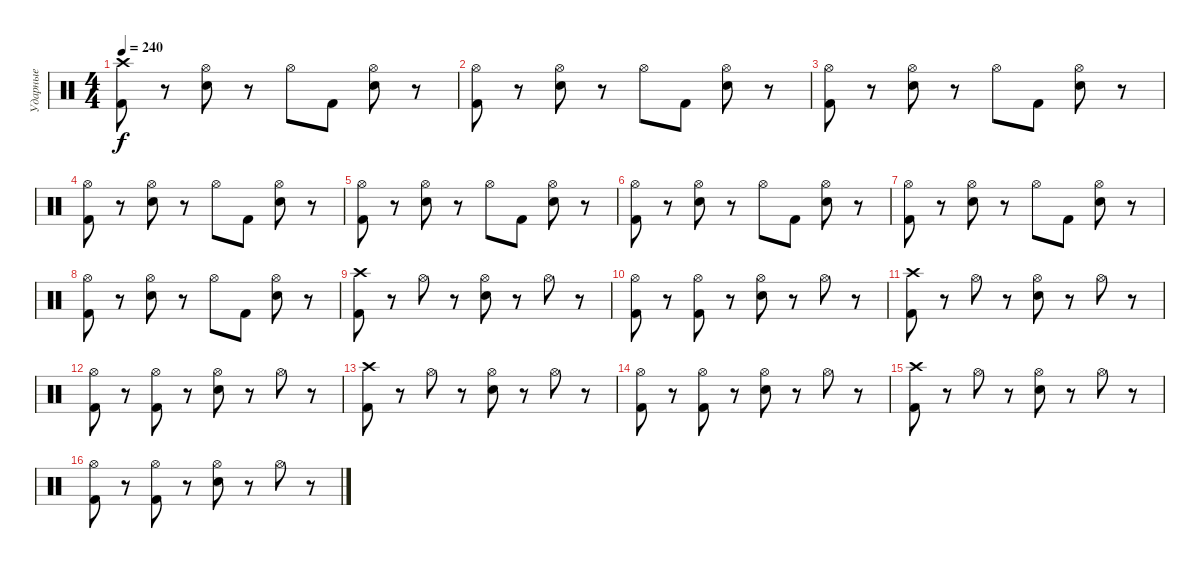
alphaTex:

\track ("Ударные" "Ударные") {instrument percussion}
\staff {score}
\articulation defaults
\ts (4 4)
\tempo 240
\clef neutral
\ks c
("Crash high (hit)" "Kick (hit) 2").8{dy f} r.8 ("Hi-Hat (open)" "Electric Snare (hit)").8 r.8 "Hi-Hat (open)".8 "Kick (hit) 2".8 ("Hi-Hat (open)" "Electric Snare (hit)").8 r.8 |
("Hi-Hat (open)" "Kick (hit) 2").8 r.8 ("Hi-Hat (open)" "Electric Snare (hit)").8 r.8 "Hi-Hat (open)".8 "Kick (hit) 2".8 ("Hi-Hat (open)" "Electric Snare (hit)").8 r.8 |
("Hi-Hat (open)" "Kick (hit) 2").8 r.8 ("Hi-Hat (open)" "Electric Snare (hit)").8 r.8 "Hi-Hat (open)".8 "Kick (hit) 2".8 ("Hi-Hat (open)" "Electric Snare (hit)").8 r.8 |
("Hi-Hat (open)" "Kick (hit) 2").8 r.8 ("Hi-Hat (open)" "Electric Snare (hit)").8 r.8 "Hi-Hat (open)".8 "Kick (hit) 2".8 ("Hi-Hat (open)" "Electric Snare (hit)").8 r.8 |
("Hi-Hat (open)" "Kick (hit) 2").8 r.8 ("Hi-Hat (open)" "Electric Snare (hit)").8 r.8 "Hi-Hat (open)".8 "Kick (hit) 2".8 ("Hi-Hat (open)" "Electric Snare (hit)").8 r.8 |
("Hi-Hat (open)" "Kick (hit) 2").8 r.8 ("Hi-Hat (open)" "Electric Snare (hit)").8 r.8 "Hi-Hat (open)".8 "Kick (hit) 2".8 ("Hi-Hat (open)" "Electric Snare (hit)").8 r.8 |
("Hi-Hat (open)" "Kick (hit) 2").8 r.8 ("Hi-Hat (open)" "Electric Snare (hit)").8 r.8 "Hi-Hat (open)".8 "Kick (hit) 2".8 ("Hi-Hat (open)" "Electric Snare (hit)").8 r.8 |
("Hi-Hat (open)" "Kick (hit) 2").8 r.8 ("Hi-Hat (open)" "Electric Snare (hit)").8 r.8 "Hi-Hat (open)".8 "Kick (hit) 2".8 ("Hi-Hat (open)" "Electric Snare (hit)").8 r.8 |
("Crash high (hit)" "Kick (hit) 2").8 r.8 "Hi-Hat (open)".8 r.8 ("Hi-Hat (open)" "Electric Snare (hit)").8 r.8 "Hi-Hat (open)".8 r.8 |
("Hi-Hat (open)" "Kick (hit) 2").8 r.8 ("Hi-Hat (open)" "Kick (hit) 2").8 r.8 ("Hi-Hat (open)" "Electric Snare (hit)").8 r.8 "Hi-Hat (open)".8 r.8 |
("Crash high (hit)" "Kick (hit) 2").8 r.8 "Hi-Hat (open)".8 r.8 ("Hi-Hat (open)" "Electric Snare (hit)").8 r.8 "Hi-Hat (open)".8 r.8 |
("Hi-Hat (open)" "Kick (hit) 2").8 r.8 ("Hi-Hat (open)" "Kick (hit) 2").8 r.8 ("Hi-Hat (open)" "Electric Snare (hit)").8 r.8 "Hi-Hat (open)".8 r.8 |
("Crash high (hit)" "Kick (hit) 2").8 r.8 "Hi-Hat (open)".8 r.8 ("Hi-Hat (open)" "Electric Snare (hit)").8 r.8 "Hi-Hat (open)".8 r.8 |
("Hi-Hat (open)" "Kick (hit) 2").8 r.8 ("Hi-Hat (open)" "Kick (hit) 2").8 r.8 ("Hi-Hat (open)" "Electric Snare (hit)").8 r.8 "Hi-Hat (open)".8 r.8 |
("Crash high (hit)" "Kick (hit) 2").8 r.8 "Hi-Hat (open)".8 r.8 ("Hi-Hat (open)" "Electric Snare (hit)").8 r.8 "Hi-Hat (open)".8 r.8 |
("Hi-Hat (open)" "Kick (hit) 2").8 r.8 ("Hi-Hat (open)" "Kick (hit) 2").8 r.8 ("Hi-Hat (open)" "Electric Snare (hit)").8 r.8 "Hi-Hat (open)".8 r.8
